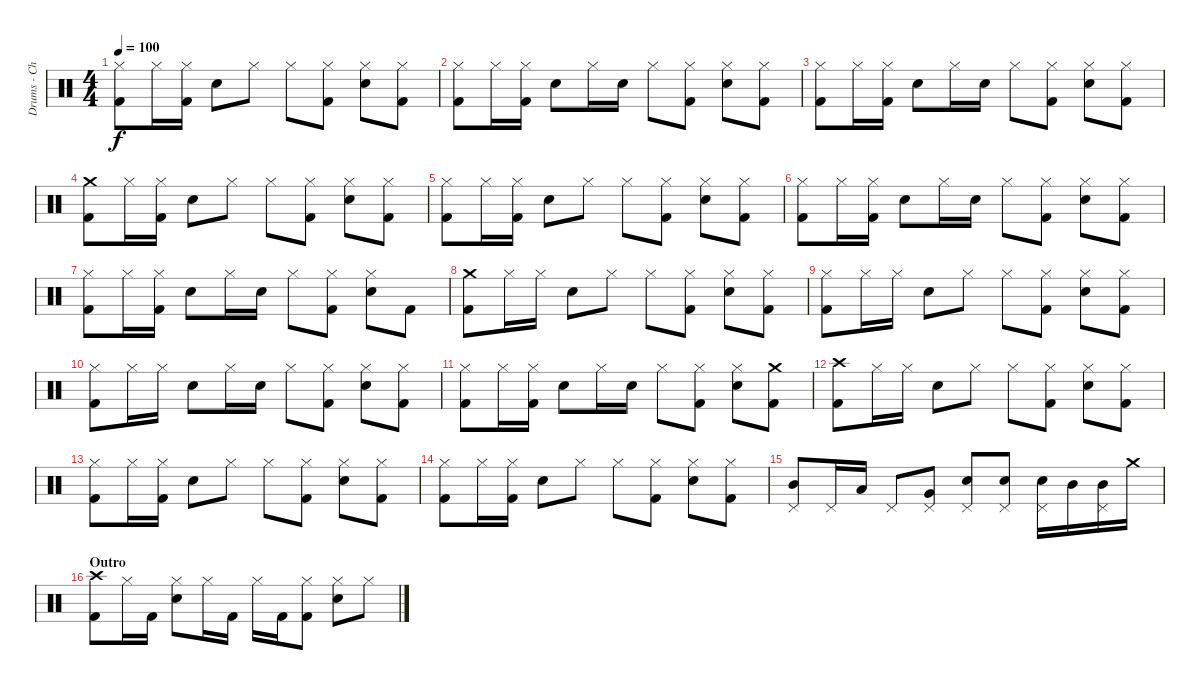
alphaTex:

\track ("Drums - Chad" "Drums - Ch") {instrument percussion}
\staff {score}
\articulation defaults
\ts (4 4)
\tempo 100
\clef neutral
\ks c
("Hi-Hat (closed)" "Kick (hit) 2").8{dy f} "Hi-Hat (closed)".16 ("Hi-Hat (closed)" "Kick (hit) 2").16 "Electric Snare (hit)".8 "Hi-Hat (closed)".8 "Hi-Hat (closed)".8 ("Hi-Hat (closed)" "Kick (hit) 2").8 ("Hi-Hat (closed)" "Electric Snare (hit)").8 ("Hi-Hat (closed)" "Kick (hit) 2").8 |
("Hi-Hat (closed)" "Kick (hit) 2").8 "Hi-Hat (closed)".16 ("Hi-Hat (closed)" "Kick (hit) 2").16 "Electric Snare (hit)".8 "Hi-Hat (closed)".16 "Electric Snare (hit)".16 "Hi-Hat (closed)".8 ("Hi-Hat (closed)" "Kick (hit) 2").8 ("Hi-Hat (closed)" "Electric Snare (hit)").8 ("Hi-Hat (closed)" "Kick (hit) 2").8 |
("Hi-Hat (closed)" "Kick (hit) 2").8 "Hi-Hat (closed)".16 ("Hi-Hat (closed)" "Kick (hit) 2").16 "Electric Snare (hit)".8 "Hi-Hat (closed)".16 "Electric Snare (hit)".16 "Hi-Hat (closed)".8 ("Hi-Hat (closed)" "Kick (hit) 2").8 ("Hi-Hat (closed)" "Electric Snare (hit)").8 ("Hi-Hat (closed)" "Kick (hit) 2").8 |
("Crash medium (hit)" "Kick (hit) 2").8 "Hi-Hat (closed)".16 ("Hi-Hat (closed)" "Kick (hit) 2").16 "Electric Snare (hit)".8 "Hi-Hat (closed)".8 "Hi-Hat (closed)".8 ("Hi-Hat (closed)" "Kick (hit) 2").8 ("Hi-Hat (closed)" "Electric Snare (hit)").8 ("Hi-Hat (closed)" "Kick (hit) 2").8 |
("Hi-Hat (closed)" "Kick (hit) 2").8 "Hi-Hat (closed)".16 ("Hi-Hat (closed)" "Kick (hit) 2").16 "Electric Snare (hit)".8 "Hi-Hat (closed)".8 "Hi-Hat (closed)".8 ("Hi-Hat (closed)" "Kick (hit) 2").8 ("Hi-Hat (closed)" "Electric Snare (hit)").8 ("Hi-Hat (closed)" "Kick (hit) 2").8 |
("Hi-Hat (closed)" "Kick (hit) 2").8 "Hi-Hat (closed)".16 ("Hi-Hat (closed)" "Kick (hit) 2").16 "Electric Snare (hit)".8 "Hi-Hat (closed)".16 "Electric Snare (hit)".16 "Hi-Hat (closed)".8 ("Hi-Hat (closed)" "Kick (hit) 2").8 ("Hi-Hat (closed)" "Electric Snare (hit)").8 ("Hi-Hat (closed)" "Kick (hit) 2").8 |
("Hi-Hat (closed)" "Kick (hit) 2").8 "Hi-Hat (closed)".16 ("Hi-Hat (closed)" "Kick (hit) 2").16 "Electric Snare (hit)".8 "Hi-Hat (closed)".16 "Electric Snare (hit)".16 "Hi-Hat (closed)".8 ("Hi-Hat (closed)" "Kick (hit) 2").8 ("Hi-Hat (closed)" "Electric Snare (hit)").8 "Kick (hit) 2".8 |
("Crash medium (hit)" "Kick (hit) 2").8 "Hi-Hat (closed)".16 "Hi-Hat (closed)".16 "Electric Snare (hit)".8 "Hi-Hat (closed)".8 "Hi-Hat (closed)".8 ("Hi-Hat (closed)" "Kick (hit) 2").8 ("Hi-Hat (closed)" "Electric Snare (hit)").8 ("Hi-Hat (closed)" "Kick (hit) 2").8 |
("Hi-Hat (closed)" "Kick (hit) 2").8 "Hi-Hat (closed)".16 "Hi-Hat (closed)".16 "Electric Snare (hit)".8 "Hi-Hat (closed)".8 "Hi-Hat (closed)".8 ("Hi-Hat (closed)" "Kick (hit) 2").8 ("Hi-Hat (closed)" "Electric Snare (hit)").8 ("Hi-Hat (closed)" "Kick (hit) 2").8 |
("Hi-Hat (closed)" "Kick (hit) 2").8 "Hi-Hat (closed)".16 "Hi-Hat (closed)".16 "Electric Snare (hit)".8 "Hi-Hat (closed)".16 "Electric Snare (hit)".16 "Hi-Hat (closed)".8 ("Hi-Hat (closed)" "Kick (hit) 2").8 ("Hi-Hat (closed)" "Electric Snare (hit)").8 ("Hi-Hat (closed)" "Kick (hit) 2").8 |
("Hi-Hat (closed)" "Kick (hit) 2").8 "Hi-Hat (closed)".16 ("Hi-Hat (closed)" "Kick (hit) 2").16 "Electric Snare (hit)".8 "Hi-Hat (closed)".16 "Electric Snare (hit)".16 "Hi-Hat (closed)".8 ("Hi-Hat (closed)" "Kick (hit) 2").8 ("Hi-Hat (closed)" "Electric Snare (hit)").8 ("Crash medium (hit)" "Kick (hit) 2").8 |
("Crash high (hit)" "Kick (hit) 2").8 "Hi-Hat (closed)".16 "Hi-Hat (closed)".16 "Electric Snare (hit)".8 "Hi-Hat (closed)".8 "Hi-Hat (closed)".8 ("Hi-Hat (closed)" "Kick (hit) 2").8 ("Hi-Hat (closed)" "Electric Snare (hit)").8 ("Hi-Hat (closed)" "Kick (hit) 2").8 |
("Hi-Hat (closed)" "Kick (hit) 2").8 "Hi-Hat (closed)".16 ("Hi-Hat (closed)" "Kick (hit) 2").16 "Electric Snare (hit)".8 "Hi-Hat (closed)".8 "Hi-Hat (closed)".8 ("Hi-Hat (closed)" "Kick (hit) 2").8 ("Hi-Hat (closed)" "Electric Snare (hit)").8 ("Hi-Hat (closed)" "Kick (hit) 2").8 |
("Hi-Hat (closed)" "Kick (hit) 2").8 "Hi-Hat (closed)".16 ("Hi-Hat (closed)" "Kick (hit) 2").16 "Electric Snare (hit)".8 "Hi-Hat (closed)".8 "Hi-Hat (closed)".8 ("Hi-Hat (closed)" "Kick (hit) 2").8 ("Hi-Hat (closed)" "Electric Snare (hit)").8 ("Hi-Hat (closed)" "Kick (hit) 2").8 |
("Mid Tom (hit)" "Pedal Hi-Hat (hit)").8 "Pedal Hi-Hat (hit)".16 "Low Tom (hit)".16 "Pedal Hi-Hat (hit)".8 ("Very Low Tom (hit)" "Pedal Hi-Hat (hit)").8 ("Electric Snare (hit)" "Pedal Hi-Hat (hit)").8 ("Electric Snare (hit)" "Pedal Hi-Hat (hit)").8 ("Electric Snare (hit)" "Pedal Hi-Hat (hit)").16 "Mid Tom (hit)".16 ("Mid Tom (hit)" "Pedal Hi-Hat (hit)").16 "Crash medium (hit)".16 |
\section ("" "Outro")
("Crash high (hit)" "Kick (hit) 2").8 "Hi-Hat (closed)".16 "Kick (hit) 2".16 ("Hi-Hat (closed)" "Electric Snare (hit)").8 "Hi-Hat (closed)".16 "Kick (hit) 2".16 "Hi-Hat (closed)".16 "Kick (hit) 2".16 ("Hi-Hat (closed)" "Kick (hit) 2").8 ("Hi-Hat (closed)" "Electric Snare (hit)").8 "Hi-Hat (closed)".8
